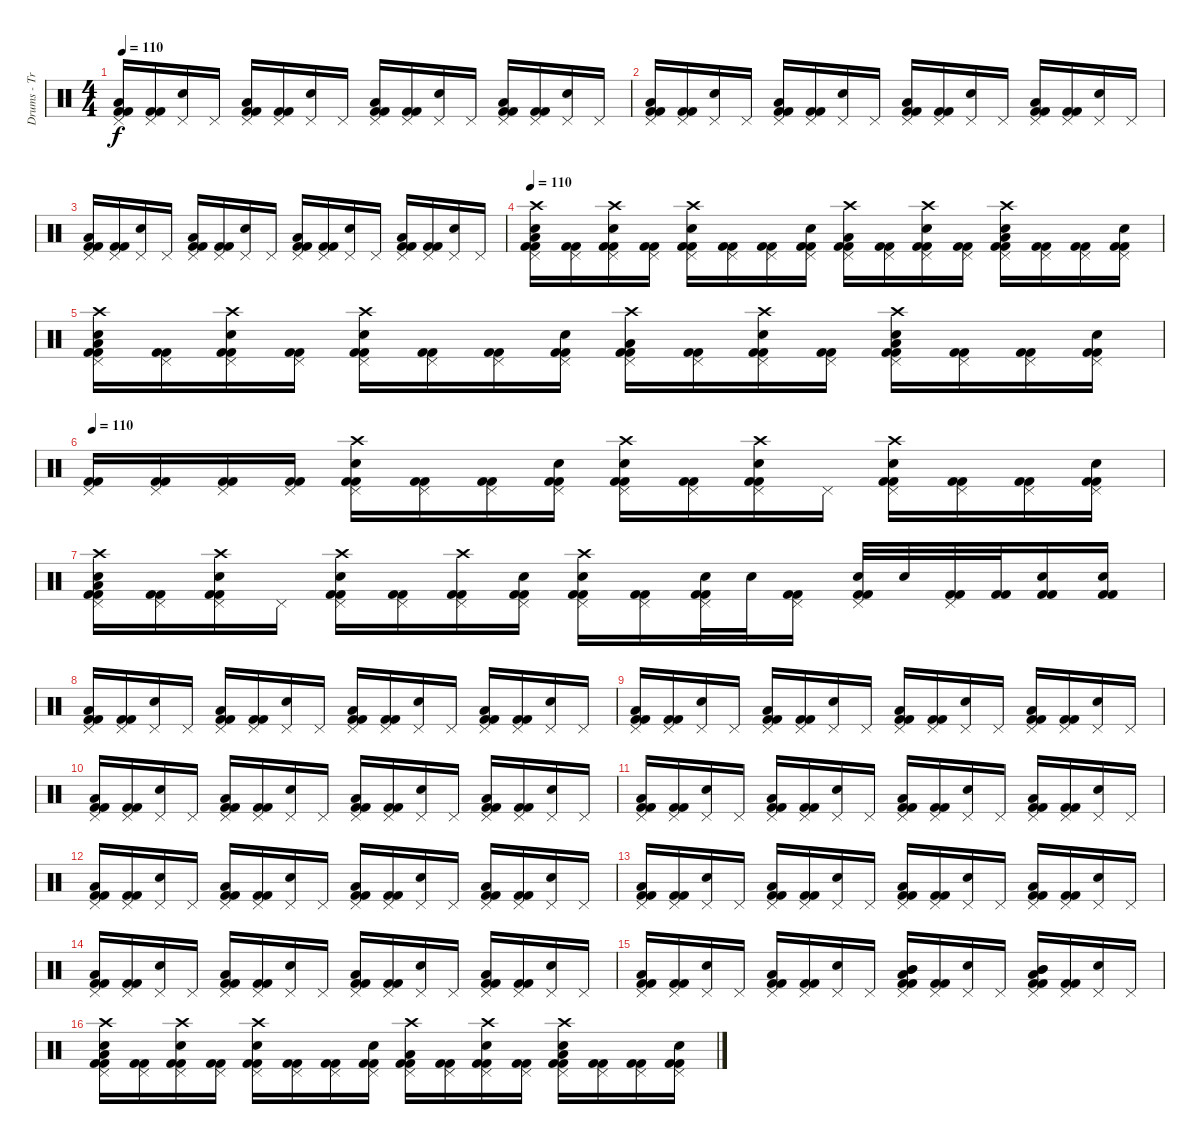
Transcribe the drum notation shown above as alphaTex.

\track ("Drums - Travis Barker" "Drums - Tr") {instrument percussion}
\staff {score}
\articulation defaults
\ts (4 4)
\tempo 110
\clef neutral
\ks c
("Pedal Hi-Hat (hit)" "Low Tom (hit)" "Kick (hit) 2" "Kick (hit) 2").16{dy f} ("Pedal Hi-Hat (hit)" "Kick (hit) 2" "Kick (hit) 2").16 ("Pedal Hi-Hat (hit)" "Electric Snare (hit)").16 "Pedal Hi-Hat (hit)".16 ("Pedal Hi-Hat (hit)" "Low Tom (hit)" "Kick (hit) 2" "Kick (hit) 2").16 ("Pedal Hi-Hat (hit)" "Kick (hit) 2" "Kick (hit) 2").16 ("Pedal Hi-Hat (hit)" "Electric Snare (hit)").16 "Pedal Hi-Hat (hit)".16 ("Pedal Hi-Hat (hit)" "Low Tom (hit)" "Kick (hit) 2" "Kick (hit) 2").16 ("Pedal Hi-Hat (hit)" "Kick (hit) 2" "Kick (hit) 2").16 ("Pedal Hi-Hat (hit)" "Electric Snare (hit)").16 "Pedal Hi-Hat (hit)".16 ("Pedal Hi-Hat (hit)" "Low Tom (hit)" "Kick (hit) 2" "Kick (hit) 2").16 ("Pedal Hi-Hat (hit)" "Kick (hit) 2" "Kick (hit) 2").16 ("Pedal Hi-Hat (hit)" "Electric Snare (hit)").16 "Pedal Hi-Hat (hit)".16 |
("Pedal Hi-Hat (hit)" "Low Tom (hit)" "Kick (hit) 2" "Kick (hit) 2").16 ("Pedal Hi-Hat (hit)" "Kick (hit) 2" "Kick (hit) 2").16 ("Pedal Hi-Hat (hit)" "Electric Snare (hit)").16 "Pedal Hi-Hat (hit)".16 ("Pedal Hi-Hat (hit)" "Low Tom (hit)" "Kick (hit) 2" "Kick (hit) 2").16 ("Pedal Hi-Hat (hit)" "Kick (hit) 2" "Kick (hit) 2").16 ("Pedal Hi-Hat (hit)" "Electric Snare (hit)").16 "Pedal Hi-Hat (hit)".16 ("Pedal Hi-Hat (hit)" "Low Tom (hit)" "Kick (hit) 2" "Kick (hit) 2").16 ("Pedal Hi-Hat (hit)" "Kick (hit) 2" "Kick (hit) 2").16 ("Pedal Hi-Hat (hit)" "Electric Snare (hit)").16 "Pedal Hi-Hat (hit)".16 ("Pedal Hi-Hat (hit)" "Low Tom (hit)" "Kick (hit) 2" "Kick (hit) 2").16 ("Pedal Hi-Hat (hit)" "Kick (hit) 2" "Kick (hit) 2").16 ("Pedal Hi-Hat (hit)" "Electric Snare (hit)").16 "Pedal Hi-Hat (hit)".16 |
("Pedal Hi-Hat (hit)" "Low Tom (hit)" "Kick (hit) 2" "Kick (hit) 2").16 ("Pedal Hi-Hat (hit)" "Kick (hit) 2" "Kick (hit) 2").16 ("Pedal Hi-Hat (hit)" "Electric Snare (hit)").16 "Pedal Hi-Hat (hit)".16 ("Pedal Hi-Hat (hit)" "Low Tom (hit)" "Kick (hit) 2" "Kick (hit) 2").16 ("Pedal Hi-Hat (hit)" "Kick (hit) 2" "Kick (hit) 2").16 ("Pedal Hi-Hat (hit)" "Electric Snare (hit)").16 "Pedal Hi-Hat (hit)".16 ("Pedal Hi-Hat (hit)" "Low Tom (hit)" "Kick (hit) 2" "Kick (hit) 2").16 ("Pedal Hi-Hat (hit)" "Kick (hit) 2" "Kick (hit) 2").16 ("Pedal Hi-Hat (hit)" "Electric Snare (hit)").16 "Pedal Hi-Hat (hit)".16 ("Pedal Hi-Hat (hit)" "Low Tom (hit)" "Kick (hit) 2" "Kick (hit) 2").16 ("Pedal Hi-Hat (hit)" "Kick (hit) 2" "Kick (hit) 2").16 ("Pedal Hi-Hat (hit)" "Electric Snare (hit)").16 "Pedal Hi-Hat (hit)".16 |
\tempo 110
("Pedal Hi-Hat (hit)" "Crash high (hit)" "Low Tom (hit)" "Electric Snare (hit)" "Kick (hit) 2" "Kick (hit) 2").16 ("Pedal Hi-Hat (hit)" "Kick (hit) 2" "Kick (hit) 2").16 ("Pedal Hi-Hat (hit)" "Crash high (hit)" "Electric Snare (hit)" "Kick (hit) 2" "Kick (hit) 2").16 ("Pedal Hi-Hat (hit)" "Kick (hit) 2" "Kick (hit) 2").16 ("Pedal Hi-Hat (hit)" "Crash high (hit)" "Electric Snare (hit)" "Kick (hit) 2" "Kick (hit) 2").16 ("Pedal Hi-Hat (hit)" "Kick (hit) 2" "Kick (hit) 2").16 ("Pedal Hi-Hat (hit)" "Kick (hit) 2" "Kick (hit) 2").16 ("Pedal Hi-Hat (hit)" "Electric Snare (hit)" "Kick (hit) 2" "Kick (hit) 2").16 ("Pedal Hi-Hat (hit)" "Crash high (hit)" "Low Tom (hit)" "Kick (hit) 2" "Kick (hit) 2").16 ("Pedal Hi-Hat (hit)" "Kick (hit) 2" "Kick (hit) 2").16 ("Pedal Hi-Hat (hit)" "Crash high (hit)" "Electric Snare (hit)" "Kick (hit) 2" "Kick (hit) 2").16 ("Pedal Hi-Hat (hit)" "Kick (hit) 2" "Kick (hit) 2").16 ("Pedal Hi-Hat (hit)" "Crash high (hit)" "Low Tom (hit)" "Electric Snare (hit)" "Kick (hit) 2" "Kick (hit) 2").16 ("Pedal Hi-Hat (hit)" "Kick (hit) 2" "Kick (hit) 2").16 ("Pedal Hi-Hat (hit)" "Kick (hit) 2" "Kick (hit) 2").16 ("Pedal Hi-Hat (hit)" "Electric Snare (hit)" "Kick (hit) 2" "Kick (hit) 2").16 |
("Pedal Hi-Hat (hit)" "Crash high (hit)" "Low Tom (hit)" "Electric Snare (hit)" "Kick (hit) 2" "Kick (hit) 2").16 ("Pedal Hi-Hat (hit)" "Kick (hit) 2" "Kick (hit) 2").16 ("Pedal Hi-Hat (hit)" "Crash high (hit)" "Electric Snare (hit)" "Kick (hit) 2" "Kick (hit) 2").16 ("Pedal Hi-Hat (hit)" "Kick (hit) 2" "Kick (hit) 2").16 ("Pedal Hi-Hat (hit)" "Crash high (hit)" "Electric Snare (hit)" "Kick (hit) 2" "Kick (hit) 2").16 ("Pedal Hi-Hat (hit)" "Kick (hit) 2" "Kick (hit) 2").16 ("Pedal Hi-Hat (hit)" "Kick (hit) 2" "Kick (hit) 2").16 ("Pedal Hi-Hat (hit)" "Electric Snare (hit)" "Kick (hit) 2" "Kick (hit) 2").16 ("Pedal Hi-Hat (hit)" "Crash high (hit)" "Low Tom (hit)" "Kick (hit) 2" "Kick (hit) 2").16 ("Pedal Hi-Hat (hit)" "Kick (hit) 2" "Kick (hit) 2").16 ("Pedal Hi-Hat (hit)" "Crash high (hit)" "Electric Snare (hit)" "Kick (hit) 2" "Kick (hit) 2").16 ("Pedal Hi-Hat (hit)" "Kick (hit) 2" "Kick (hit) 2").16 ("Pedal Hi-Hat (hit)" "Crash high (hit)" "Low Tom (hit)" "Electric Snare (hit)" "Kick (hit) 2" "Kick (hit) 2").16 ("Pedal Hi-Hat (hit)" "Kick (hit) 2" "Kick (hit) 2").16 ("Pedal Hi-Hat (hit)" "Kick (hit) 2" "Kick (hit) 2").16 ("Pedal Hi-Hat (hit)" "Electric Snare (hit)" "Kick (hit) 2" "Kick (hit) 2").16 |
\tempo 110
("Pedal Hi-Hat (hit)" "Kick (hit) 2" "Kick (hit) 2").16 ("Pedal Hi-Hat (hit)" "Kick (hit) 2" "Kick (hit) 2").16 ("Pedal Hi-Hat (hit)" "Kick (hit) 2" "Kick (hit) 2").16 ("Pedal Hi-Hat (hit)" "Kick (hit) 2" "Kick (hit) 2").16 ("Pedal Hi-Hat (hit)" "Crash high (hit)" "Electric Snare (hit)" "Kick (hit) 2" "Kick (hit) 2").16 ("Pedal Hi-Hat (hit)" "Kick (hit) 2" "Kick (hit) 2").16 ("Pedal Hi-Hat (hit)" "Kick (hit) 2" "Kick (hit) 2").16 ("Pedal Hi-Hat (hit)" "Electric Snare (hit)" "Kick (hit) 2" "Kick (hit) 2").16 ("Pedal Hi-Hat (hit)" "Crash high (hit)" "Electric Snare (hit)" "Kick (hit) 2" "Kick (hit) 2").16 ("Pedal Hi-Hat (hit)" "Kick (hit) 2" "Kick (hit) 2").16 ("Pedal Hi-Hat (hit)" "Crash high (hit)" "Electric Snare (hit)" "Kick (hit) 2" "Kick (hit) 2").16 "Pedal Hi-Hat (hit)".16 ("Pedal Hi-Hat (hit)" "Crash high (hit)" "Electric Snare (hit)" "Kick (hit) 2" "Kick (hit) 2").16 ("Pedal Hi-Hat (hit)" "Kick (hit) 2" "Kick (hit) 2").16 ("Pedal Hi-Hat (hit)" "Kick (hit) 2" "Kick (hit) 2").16 ("Pedal Hi-Hat (hit)" "Electric Snare (hit)" "Kick (hit) 2" "Kick (hit) 2").16 |
("Pedal Hi-Hat (hit)" "Crash high (hit)" "Low Tom (hit)" "Electric Snare (hit)" "Kick (hit) 2" "Kick (hit) 2").16 ("Pedal Hi-Hat (hit)" "Kick (hit) 2" "Kick (hit) 2").16 ("Pedal Hi-Hat (hit)" "Crash high (hit)" "Electric Snare (hit)" "Kick (hit) 2" "Kick (hit) 2").16 "Pedal Hi-Hat (hit)".16 ("Pedal Hi-Hat (hit)" "Crash high (hit)" "Electric Snare (hit)" "Kick (hit) 2" "Kick (hit) 2").16 ("Pedal Hi-Hat (hit)" "Kick (hit) 2" "Kick (hit) 2").16 ("Pedal Hi-Hat (hit)" "Crash high (hit)" "Kick (hit) 2" "Kick (hit) 2").16 ("Pedal Hi-Hat (hit)" "Electric Snare (hit)" "Kick (hit) 2" "Kick (hit) 2").16 ("Pedal Hi-Hat (hit)" "Crash high (hit)" "Electric Snare (hit)" "Kick (hit) 2" "Kick (hit) 2").16 ("Pedal Hi-Hat (hit)" "Kick (hit) 2" "Kick (hit) 2").16 ("Pedal Hi-Hat (hit)" "Electric Snare (hit)" "Kick (hit) 2" "Kick (hit) 2").32 "Electric Snare (hit)".32 ("Pedal Hi-Hat (hit)" "Kick (hit) 2" "Kick (hit) 2").16 ("Pedal Hi-Hat (hit)" "Electric Snare (hit)" "Kick (hit) 2" "Kick (hit) 2").32 "Electric Snare (hit)".32 ("Pedal Hi-Hat (hit)" "Kick (hit) 2" "Kick (hit) 2").32 ("Kick (hit) 2" "Kick (hit) 2").32 ("Electric Snare (hit)" "Kick (hit) 2" "Kick (hit) 2").16 ("Electric Snare (hit)" "Kick (hit) 2" "Kick (hit) 2").16 |
("Pedal Hi-Hat (hit)" "Low Tom (hit)" "Kick (hit) 2" "Kick (hit) 2").16 ("Pedal Hi-Hat (hit)" "Kick (hit) 2" "Kick (hit) 2").16 ("Pedal Hi-Hat (hit)" "Electric Snare (hit)").16 "Pedal Hi-Hat (hit)".16 ("Pedal Hi-Hat (hit)" "Low Tom (hit)" "Kick (hit) 2" "Kick (hit) 2").16 ("Pedal Hi-Hat (hit)" "Kick (hit) 2" "Kick (hit) 2").16 ("Pedal Hi-Hat (hit)" "Electric Snare (hit)").16 "Pedal Hi-Hat (hit)".16 ("Pedal Hi-Hat (hit)" "Low Tom (hit)" "Kick (hit) 2" "Kick (hit) 2").16 ("Pedal Hi-Hat (hit)" "Kick (hit) 2" "Kick (hit) 2").16 ("Pedal Hi-Hat (hit)" "Electric Snare (hit)").16 "Pedal Hi-Hat (hit)".16 ("Pedal Hi-Hat (hit)" "Low Tom (hit)" "Kick (hit) 2" "Kick (hit) 2").16 ("Pedal Hi-Hat (hit)" "Kick (hit) 2" "Kick (hit) 2").16 ("Pedal Hi-Hat (hit)" "Electric Snare (hit)").16 "Pedal Hi-Hat (hit)".16 |
("Pedal Hi-Hat (hit)" "Low Tom (hit)" "Kick (hit) 2" "Kick (hit) 2").16 ("Pedal Hi-Hat (hit)" "Kick (hit) 2" "Kick (hit) 2").16 ("Pedal Hi-Hat (hit)" "Electric Snare (hit)").16 "Pedal Hi-Hat (hit)".16 ("Pedal Hi-Hat (hit)" "Low Tom (hit)" "Kick (hit) 2" "Kick (hit) 2").16 ("Pedal Hi-Hat (hit)" "Kick (hit) 2" "Kick (hit) 2").16 ("Pedal Hi-Hat (hit)" "Electric Snare (hit)").16 "Pedal Hi-Hat (hit)".16 ("Pedal Hi-Hat (hit)" "Low Tom (hit)" "Kick (hit) 2" "Kick (hit) 2").16 ("Pedal Hi-Hat (hit)" "Kick (hit) 2" "Kick (hit) 2").16 ("Pedal Hi-Hat (hit)" "Electric Snare (hit)").16 "Pedal Hi-Hat (hit)".16 ("Pedal Hi-Hat (hit)" "Low Tom (hit)" "Kick (hit) 2" "Kick (hit) 2").16 ("Pedal Hi-Hat (hit)" "Kick (hit) 2" "Kick (hit) 2").16 ("Pedal Hi-Hat (hit)" "Electric Snare (hit)").16 "Pedal Hi-Hat (hit)".16 |
("Pedal Hi-Hat (hit)" "Low Tom (hit)" "Kick (hit) 2" "Kick (hit) 2").16 ("Pedal Hi-Hat (hit)" "Kick (hit) 2" "Kick (hit) 2").16 ("Pedal Hi-Hat (hit)" "Electric Snare (hit)").16 "Pedal Hi-Hat (hit)".16 ("Pedal Hi-Hat (hit)" "Low Tom (hit)" "Kick (hit) 2" "Kick (hit) 2").16 ("Pedal Hi-Hat (hit)" "Kick (hit) 2" "Kick (hit) 2").16 ("Pedal Hi-Hat (hit)" "Electric Snare (hit)").16 "Pedal Hi-Hat (hit)".16 ("Pedal Hi-Hat (hit)" "Low Tom (hit)" "Kick (hit) 2" "Kick (hit) 2").16 ("Pedal Hi-Hat (hit)" "Kick (hit) 2" "Kick (hit) 2").16 ("Pedal Hi-Hat (hit)" "Electric Snare (hit)").16 "Pedal Hi-Hat (hit)".16 ("Pedal Hi-Hat (hit)" "Low Tom (hit)" "Kick (hit) 2" "Kick (hit) 2").16 ("Pedal Hi-Hat (hit)" "Kick (hit) 2" "Kick (hit) 2").16 ("Pedal Hi-Hat (hit)" "Electric Snare (hit)").16 "Pedal Hi-Hat (hit)".16 |
("Pedal Hi-Hat (hit)" "Low Tom (hit)" "Kick (hit) 2" "Kick (hit) 2").16 ("Pedal Hi-Hat (hit)" "Kick (hit) 2" "Kick (hit) 2").16 ("Pedal Hi-Hat (hit)" "Electric Snare (hit)").16 "Pedal Hi-Hat (hit)".16 ("Pedal Hi-Hat (hit)" "Low Tom (hit)" "Kick (hit) 2" "Kick (hit) 2").16 ("Pedal Hi-Hat (hit)" "Kick (hit) 2" "Kick (hit) 2").16 ("Pedal Hi-Hat (hit)" "Electric Snare (hit)").16 "Pedal Hi-Hat (hit)".16 ("Pedal Hi-Hat (hit)" "Low Tom (hit)" "Kick (hit) 2" "Kick (hit) 2").16 ("Pedal Hi-Hat (hit)" "Kick (hit) 2" "Kick (hit) 2").16 ("Pedal Hi-Hat (hit)" "Electric Snare (hit)").16 "Pedal Hi-Hat (hit)".16 ("Pedal Hi-Hat (hit)" "Low Tom (hit)" "Kick (hit) 2" "Kick (hit) 2").16 ("Pedal Hi-Hat (hit)" "Kick (hit) 2" "Kick (hit) 2").16 ("Pedal Hi-Hat (hit)" "Electric Snare (hit)").16 "Pedal Hi-Hat (hit)".16 |
("Pedal Hi-Hat (hit)" "Low Tom (hit)" "Kick (hit) 2" "Kick (hit) 2").16 ("Pedal Hi-Hat (hit)" "Kick (hit) 2" "Kick (hit) 2").16 ("Pedal Hi-Hat (hit)" "Electric Snare (hit)").16 "Pedal Hi-Hat (hit)".16 ("Pedal Hi-Hat (hit)" "Low Tom (hit)" "Kick (hit) 2" "Kick (hit) 2").16 ("Pedal Hi-Hat (hit)" "Kick (hit) 2" "Kick (hit) 2").16 ("Pedal Hi-Hat (hit)" "Electric Snare (hit)").16 "Pedal Hi-Hat (hit)".16 ("Pedal Hi-Hat (hit)" "Low Tom (hit)" "Kick (hit) 2" "Kick (hit) 2").16 ("Pedal Hi-Hat (hit)" "Kick (hit) 2" "Kick (hit) 2").16 ("Pedal Hi-Hat (hit)" "Electric Snare (hit)").16 "Pedal Hi-Hat (hit)".16 ("Pedal Hi-Hat (hit)" "Low Tom (hit)" "Kick (hit) 2" "Kick (hit) 2").16 ("Pedal Hi-Hat (hit)" "Kick (hit) 2" "Kick (hit) 2").16 ("Pedal Hi-Hat (hit)" "Electric Snare (hit)").16 "Pedal Hi-Hat (hit)".16 |
("Pedal Hi-Hat (hit)" "Low Tom (hit)" "Kick (hit) 2" "Kick (hit) 2").16 ("Pedal Hi-Hat (hit)" "Kick (hit) 2" "Kick (hit) 2").16 ("Pedal Hi-Hat (hit)" "Electric Snare (hit)").16 "Pedal Hi-Hat (hit)".16 ("Pedal Hi-Hat (hit)" "Low Tom (hit)" "Kick (hit) 2" "Kick (hit) 2").16 ("Pedal Hi-Hat (hit)" "Kick (hit) 2" "Kick (hit) 2").16 ("Pedal Hi-Hat (hit)" "Electric Snare (hit)").16 "Pedal Hi-Hat (hit)".16 ("Pedal Hi-Hat (hit)" "Low Tom (hit)" "Kick (hit) 2" "Kick (hit) 2").16 ("Pedal Hi-Hat (hit)" "Kick (hit) 2" "Kick (hit) 2").16 ("Pedal Hi-Hat (hit)" "Electric Snare (hit)").16 "Pedal Hi-Hat (hit)".16 ("Pedal Hi-Hat (hit)" "Low Tom (hit)" "Kick (hit) 2" "Kick (hit) 2").16 ("Pedal Hi-Hat (hit)" "Kick (hit) 2" "Kick (hit) 2").16 ("Pedal Hi-Hat (hit)" "Electric Snare (hit)").16 "Pedal Hi-Hat (hit)".16 |
("Pedal Hi-Hat (hit)" "Low Tom (hit)" "Kick (hit) 2" "Kick (hit) 2").16 ("Pedal Hi-Hat (hit)" "Kick (hit) 2" "Kick (hit) 2").16 ("Pedal Hi-Hat (hit)" "Electric Snare (hit)").16 "Pedal Hi-Hat (hit)".16 ("Pedal Hi-Hat (hit)" "Low Tom (hit)" "Kick (hit) 2" "Kick (hit) 2").16 ("Pedal Hi-Hat (hit)" "Kick (hit) 2" "Kick (hit) 2").16 ("Pedal Hi-Hat (hit)" "Electric Snare (hit)").16 "Pedal Hi-Hat (hit)".16 ("Pedal Hi-Hat (hit)" "Low Tom (hit)" "Kick (hit) 2" "Kick (hit) 2").16 ("Pedal Hi-Hat (hit)" "Kick (hit) 2" "Kick (hit) 2").16 ("Pedal Hi-Hat (hit)" "Electric Snare (hit)").16 "Pedal Hi-Hat (hit)".16 ("Pedal Hi-Hat (hit)" "Low Tom (hit)" "Kick (hit) 2" "Kick (hit) 2").16 ("Pedal Hi-Hat (hit)" "Kick (hit) 2" "Kick (hit) 2").16 ("Pedal Hi-Hat (hit)" "Electric Snare (hit)").16 "Pedal Hi-Hat (hit)".16 |
("Pedal Hi-Hat (hit)" "Low Tom (hit)" "Kick (hit) 2" "Kick (hit) 2").16 ("Pedal Hi-Hat (hit)" "Kick (hit) 2" "Kick (hit) 2").16 ("Pedal Hi-Hat (hit)" "Electric Snare (hit)").16 "Pedal Hi-Hat (hit)".16 ("Pedal Hi-Hat (hit)" "Low Tom (hit)" "Kick (hit) 2" "Kick (hit) 2").16 ("Pedal Hi-Hat (hit)" "Kick (hit) 2" "Kick (hit) 2").16 ("Pedal Hi-Hat (hit)" "Electric Snare (hit)").16 "Pedal Hi-Hat (hit)".16 ("Pedal Hi-Hat (hit)" "Mid Tom (hit)" "Low Tom (hit)" "Mid Tom (hit)" "Kick (hit) 2" "Kick (hit) 2").16 ("Pedal Hi-Hat (hit)" "Kick (hit) 2" "Kick (hit) 2").16 ("Pedal Hi-Hat (hit)" "Electric Snare (hit)").16 "Pedal Hi-Hat (hit)".16 ("Pedal Hi-Hat (hit)" "Mid Tom (hit)" "Low Tom (hit)" "Mid Tom (hit)" "Kick (hit) 2" "Kick (hit) 2").16 ("Pedal Hi-Hat (hit)" "Kick (hit) 2" "Kick (hit) 2").16 ("Pedal Hi-Hat (hit)" "Electric Snare (hit)").16 "Pedal Hi-Hat (hit)".16 |
("Pedal Hi-Hat (hit)" "Crash high (hit)" "Low Tom (hit)" "Electric Snare (hit)" "Kick (hit) 2" "Kick (hit) 2").16 ("Pedal Hi-Hat (hit)" "Kick (hit) 2" "Kick (hit) 2").16 ("Pedal Hi-Hat (hit)" "Crash high (hit)" "Electric Snare (hit)" "Kick (hit) 2" "Kick (hit) 2").16 ("Pedal Hi-Hat (hit)" "Kick (hit) 2" "Kick (hit) 2").16 ("Pedal Hi-Hat (hit)" "Crash high (hit)" "Electric Snare (hit)" "Kick (hit) 2" "Kick (hit) 2").16 ("Pedal Hi-Hat (hit)" "Kick (hit) 2" "Kick (hit) 2").16 ("Pedal Hi-Hat (hit)" "Kick (hit) 2" "Kick (hit) 2").16 ("Pedal Hi-Hat (hit)" "Electric Snare (hit)" "Kick (hit) 2" "Kick (hit) 2").16 ("Pedal Hi-Hat (hit)" "Crash high (hit)" "Low Tom (hit)" "Kick (hit) 2" "Kick (hit) 2").16 ("Pedal Hi-Hat (hit)" "Kick (hit) 2" "Kick (hit) 2").16 ("Pedal Hi-Hat (hit)" "Crash high (hit)" "Electric Snare (hit)" "Kick (hit) 2" "Kick (hit) 2").16 ("Pedal Hi-Hat (hit)" "Kick (hit) 2" "Kick (hit) 2").16 ("Pedal Hi-Hat (hit)" "Crash high (hit)" "Low Tom (hit)" "Electric Snare (hit)" "Kick (hit) 2" "Kick (hit) 2").16 ("Pedal Hi-Hat (hit)" "Kick (hit) 2" "Kick (hit) 2").16 ("Pedal Hi-Hat (hit)" "Kick (hit) 2" "Kick (hit) 2").16 ("Pedal Hi-Hat (hit)" "Electric Snare (hit)" "Kick (hit) 2" "Kick (hit) 2").16
